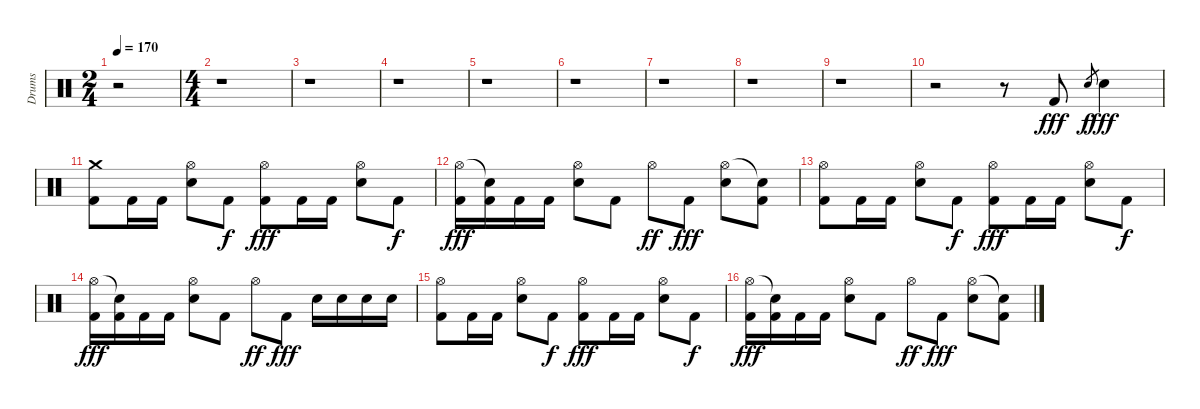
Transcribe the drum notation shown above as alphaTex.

\track ("Drums" "Drums") {instrument percussion}
\staff {score}
\articulation defaults
\ts (2 4)
\tempo 170
\clef neutral
\ks c
r.2{dy fff} |
\ts (4 4)
r.1 |
r.1 |
r.1 |
r.1 |
r.1 |
r.1 |
r.1 |
r.1 |
r.2 r.8 "Kick (hit) 2".8 "Snare (hit) 2".8{gr dy f} "Snare (hit) 2".4{dy fff} |
("Crash medium (hit)" "Kick (hit) 2").8 "Kick (hit) 2".16 "Kick (hit) 2".16 ("Hi-Hat (open)" "Snare (hit) 2").8 "Kick (hit) 2".8{dy f} ("Hi-Hat (open)" "Kick (hit) 2").8{dy fff} "Kick (hit) 2".16 "Kick (hit) 2".16 ("Hi-Hat (open)" "Snare (hit) 2").8 "Kick (hit) 2".8{dy f} |
("Hi-Hat (open)" "Kick (hit) 2").16{dy fff} ("Snare (hit)"{t} "Kick (hit) 2").16 "Kick (hit) 2".16 "Kick (hit) 2".16 ("Hi-Hat (open)" "Snare (hit) 2").8 "Kick (hit) 2".8 "Hi-Hat (open)".8{dy ff} "Kick (hit) 2".8{dy fff} ("Hi-Hat (open)" "Snare (hit) 2").8 ("Snare (hit)"{t} "Kick (hit) 2").8 |
("Hi-Hat (open)" "Kick (hit) 2").8 "Kick (hit) 2".16 "Kick (hit) 2".16 ("Hi-Hat (open)" "Snare (hit) 2").8 "Kick (hit) 2".8{dy f} ("Hi-Hat (open)" "Kick (hit) 2").8{dy fff} "Kick (hit) 2".16 "Kick (hit) 2".16 ("Hi-Hat (open)" "Snare (hit) 2").8 "Kick (hit) 2".8{dy f} |
("Hi-Hat (open)" "Kick (hit) 2").16{dy fff} ("Snare (hit)"{t} "Kick (hit) 2").16 "Kick (hit) 2".16 "Kick (hit) 2".16 ("Hi-Hat (open)" "Snare (hit) 2").8 "Kick (hit) 2".8 "Hi-Hat (open)".8{dy ff} "Kick (hit) 2".8{dy fff} "Snare (hit) 2".16 "Snare (hit) 2".16 "Snare (hit) 2".16 "Snare (hit) 2".16 |
("Hi-Hat (open)" "Kick (hit) 2").8 "Kick (hit) 2".16 "Kick (hit) 2".16 ("Hi-Hat (open)" "Snare (hit) 2").8 "Kick (hit) 2".8{dy f} ("Hi-Hat (open)" "Kick (hit) 2").8{dy fff} "Kick (hit) 2".16 "Kick (hit) 2".16 ("Hi-Hat (open)" "Snare (hit) 2").8 "Kick (hit) 2".8{dy f} |
("Hi-Hat (open)" "Kick (hit) 2").16{dy fff} ("Snare (hit)"{t} "Kick (hit) 2").16 "Kick (hit) 2".16 "Kick (hit) 2".16 ("Hi-Hat (open)" "Snare (hit) 2").8 "Kick (hit) 2".8 "Hi-Hat (open)".8{dy ff} "Kick (hit) 2".8{dy fff} ("Hi-Hat (open)" "Snare (hit) 2").8 ("Snare (hit)"{t} "Kick (hit) 2").8
